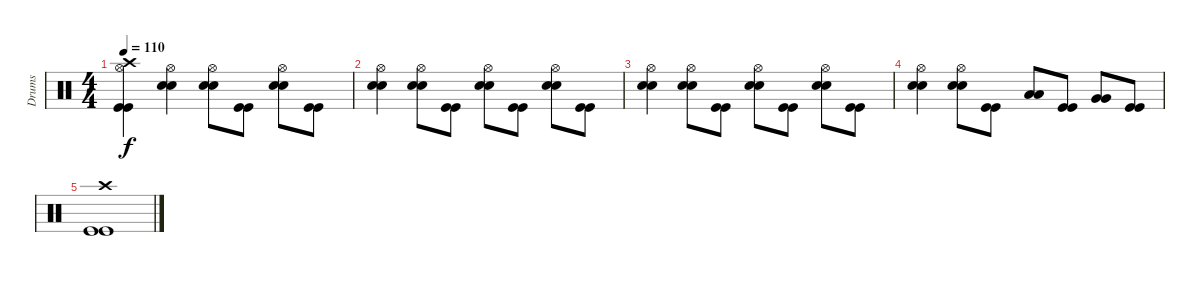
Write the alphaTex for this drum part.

\track ("Drums" "Drums") {instrument percussion}
\staff {score}
\articulation defaults
\ts (4 4)
\tempo 110
\clef neutral
\ks c
("Kick (hit)" "Kick (hit)" "Hi-Hat (open)" "Crash high (hit)").4{dy f} ("Snare (hit) 2" "Snare (hit) 2" "Hi-Hat (open)").4 ("Snare (hit) 2" "Snare (hit) 2" "Hi-Hat (open)").8 ("Kick (hit)" "Kick (hit)").8 ("Snare (hit) 2" "Snare (hit) 2" "Hi-Hat (open)").8 ("Kick (hit)" "Kick (hit)").8 |
("Snare (hit) 2" "Snare (hit) 2" "Hi-Hat (open)").4 ("Snare (hit) 2" "Snare (hit) 2" "Hi-Hat (open)").8 ("Kick (hit)" "Kick (hit)").8 ("Snare (hit) 2" "Snare (hit) 2" "Hi-Hat (open)").8 ("Kick (hit)" "Kick (hit)").8 ("Snare (hit) 2" "Snare (hit) 2" "Hi-Hat (open)").8 ("Kick (hit)" "Kick (hit)").8 |
("Snare (hit) 2" "Snare (hit) 2" "Hi-Hat (open)").4 ("Snare (hit) 2" "Snare (hit) 2" "Hi-Hat (open)").8 ("Kick (hit)" "Kick (hit)").8 ("Snare (hit) 2" "Snare (hit) 2" "Hi-Hat (open)").8 ("Kick (hit)" "Kick (hit)").8 ("Snare (hit) 2" "Snare (hit) 2" "Hi-Hat (open)").8 ("Kick (hit)" "Kick (hit)").8 |
("Snare (hit) 2" "Snare (hit) 2" "Hi-Hat (open)").4 ("Snare (hit) 2" "Snare (hit) 2" "Hi-Hat (open)").8 ("Kick (hit)" "Kick (hit)").8 ("Low Tom (hit)" "Low Tom (hit)").8 ("Kick (hit)" "Kick (hit)").8 ("Very Low Tom (hit)" "Very Low Tom (hit)").8 ("Kick (hit)" "Kick (hit)").8 |
("Kick (hit)" "Kick (hit)" "Crash high (hit)").1
